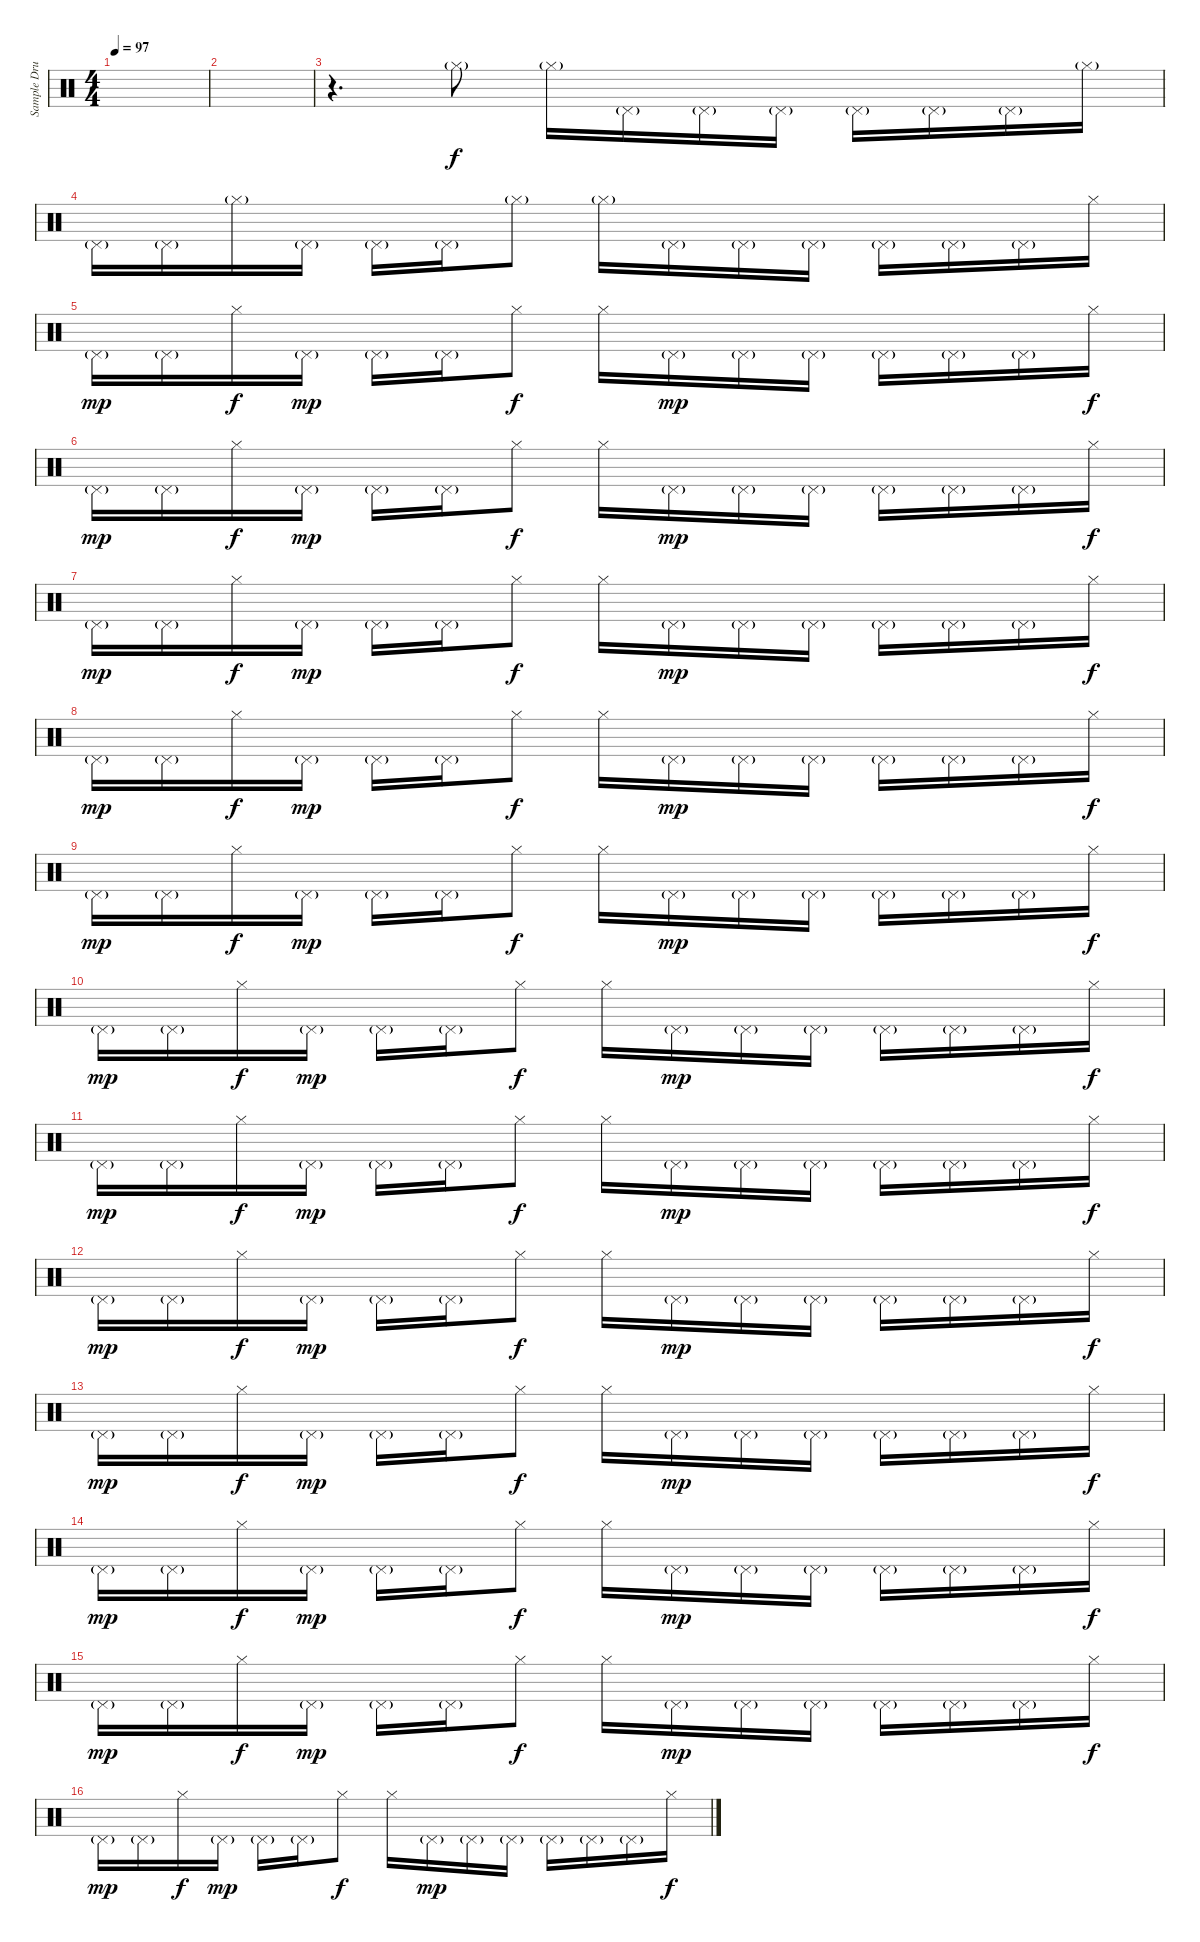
\track ("Sample Drums" "Sample Dru") {instrument percussion}
\staff {score}
\articulation defaults
\ts (4 4)
\tempo 97
\clef neutral
\ks c
|
|
r.4{d} "Hi-Hat (closed)"{g}.8 "Hi-Hat (closed)"{g}.16 "Pedal Hi-Hat (hit)"{g}.16 "Pedal Hi-Hat (hit)"{g}.16 "Pedal Hi-Hat (hit)"{g}.16 "Pedal Hi-Hat (hit)"{g}.16 "Pedal Hi-Hat (hit)"{g}.16 "Pedal Hi-Hat (hit)"{g}.16 "Hi-Hat (closed)"{g}.16 |
"Pedal Hi-Hat (hit)"{g}.16 "Pedal Hi-Hat (hit)"{g}.16 "Hi-Hat (closed)"{g}.16 "Pedal Hi-Hat (hit)"{g}.16 "Pedal Hi-Hat (hit)"{g}.16 "Pedal Hi-Hat (hit)"{g}.16 "Hi-Hat (closed)"{g}.8 "Hi-Hat (closed)"{g}.16 "Pedal Hi-Hat (hit)"{g}.16 "Pedal Hi-Hat (hit)"{g}.16 "Pedal Hi-Hat (hit)"{g}.16 "Pedal Hi-Hat (hit)"{g}.16 "Pedal Hi-Hat (hit)"{g}.16 "Pedal Hi-Hat (hit)"{g}.16 "Hi-Hat (closed)".16{dy f} |
"Pedal Hi-Hat (hit)"{g}.16{dy mp} "Pedal Hi-Hat (hit)"{g}.16 "Hi-Hat (closed)".16{dy f} "Pedal Hi-Hat (hit)"{g}.16{dy mp} "Pedal Hi-Hat (hit)"{g}.16 "Pedal Hi-Hat (hit)"{g}.16 "Hi-Hat (closed)".8{dy f} "Hi-Hat (closed)".16 "Pedal Hi-Hat (hit)"{g}.16{dy mp} "Pedal Hi-Hat (hit)"{g}.16 "Pedal Hi-Hat (hit)"{g}.16 "Pedal Hi-Hat (hit)"{g}.16 "Pedal Hi-Hat (hit)"{g}.16 "Pedal Hi-Hat (hit)"{g}.16 "Hi-Hat (closed)".16{dy f} |
"Pedal Hi-Hat (hit)"{g}.16{dy mp} "Pedal Hi-Hat (hit)"{g}.16 "Hi-Hat (closed)".16{dy f} "Pedal Hi-Hat (hit)"{g}.16{dy mp} "Pedal Hi-Hat (hit)"{g}.16 "Pedal Hi-Hat (hit)"{g}.16 "Hi-Hat (closed)".8{dy f} "Hi-Hat (closed)".16 "Pedal Hi-Hat (hit)"{g}.16{dy mp} "Pedal Hi-Hat (hit)"{g}.16 "Pedal Hi-Hat (hit)"{g}.16 "Pedal Hi-Hat (hit)"{g}.16 "Pedal Hi-Hat (hit)"{g}.16 "Pedal Hi-Hat (hit)"{g}.16 "Hi-Hat (closed)".16{dy f} |
"Pedal Hi-Hat (hit)"{g}.16{dy mp} "Pedal Hi-Hat (hit)"{g}.16 "Hi-Hat (closed)".16{dy f} "Pedal Hi-Hat (hit)"{g}.16{dy mp} "Pedal Hi-Hat (hit)"{g}.16 "Pedal Hi-Hat (hit)"{g}.16 "Hi-Hat (closed)".8{dy f} "Hi-Hat (closed)".16 "Pedal Hi-Hat (hit)"{g}.16{dy mp} "Pedal Hi-Hat (hit)"{g}.16 "Pedal Hi-Hat (hit)"{g}.16 "Pedal Hi-Hat (hit)"{g}.16 "Pedal Hi-Hat (hit)"{g}.16 "Pedal Hi-Hat (hit)"{g}.16 "Hi-Hat (closed)".16{dy f} |
"Pedal Hi-Hat (hit)"{g}.16{dy mp} "Pedal Hi-Hat (hit)"{g}.16 "Hi-Hat (closed)".16{dy f} "Pedal Hi-Hat (hit)"{g}.16{dy mp} "Pedal Hi-Hat (hit)"{g}.16 "Pedal Hi-Hat (hit)"{g}.16 "Hi-Hat (closed)".8{dy f} "Hi-Hat (closed)".16 "Pedal Hi-Hat (hit)"{g}.16{dy mp} "Pedal Hi-Hat (hit)"{g}.16 "Pedal Hi-Hat (hit)"{g}.16 "Pedal Hi-Hat (hit)"{g}.16 "Pedal Hi-Hat (hit)"{g}.16 "Pedal Hi-Hat (hit)"{g}.16 "Hi-Hat (closed)".16{dy f} |
"Pedal Hi-Hat (hit)"{g}.16{dy mp} "Pedal Hi-Hat (hit)"{g}.16 "Hi-Hat (closed)".16{dy f} "Pedal Hi-Hat (hit)"{g}.16{dy mp} "Pedal Hi-Hat (hit)"{g}.16 "Pedal Hi-Hat (hit)"{g}.16 "Hi-Hat (closed)".8{dy f} "Hi-Hat (closed)".16 "Pedal Hi-Hat (hit)"{g}.16{dy mp} "Pedal Hi-Hat (hit)"{g}.16 "Pedal Hi-Hat (hit)"{g}.16 "Pedal Hi-Hat (hit)"{g}.16 "Pedal Hi-Hat (hit)"{g}.16 "Pedal Hi-Hat (hit)"{g}.16 "Hi-Hat (closed)".16{dy f} |
"Pedal Hi-Hat (hit)"{g}.16{dy mp} "Pedal Hi-Hat (hit)"{g}.16 "Hi-Hat (closed)".16{dy f} "Pedal Hi-Hat (hit)"{g}.16{dy mp} "Pedal Hi-Hat (hit)"{g}.16 "Pedal Hi-Hat (hit)"{g}.16 "Hi-Hat (closed)".8{dy f} "Hi-Hat (closed)".16 "Pedal Hi-Hat (hit)"{g}.16{dy mp} "Pedal Hi-Hat (hit)"{g}.16 "Pedal Hi-Hat (hit)"{g}.16 "Pedal Hi-Hat (hit)"{g}.16 "Pedal Hi-Hat (hit)"{g}.16 "Pedal Hi-Hat (hit)"{g}.16 "Hi-Hat (closed)".16{dy f} |
"Pedal Hi-Hat (hit)"{g}.16{dy mp} "Pedal Hi-Hat (hit)"{g}.16 "Hi-Hat (closed)".16{dy f} "Pedal Hi-Hat (hit)"{g}.16{dy mp} "Pedal Hi-Hat (hit)"{g}.16 "Pedal Hi-Hat (hit)"{g}.16 "Hi-Hat (closed)".8{dy f} "Hi-Hat (closed)".16 "Pedal Hi-Hat (hit)"{g}.16{dy mp} "Pedal Hi-Hat (hit)"{g}.16 "Pedal Hi-Hat (hit)"{g}.16 "Pedal Hi-Hat (hit)"{g}.16 "Pedal Hi-Hat (hit)"{g}.16 "Pedal Hi-Hat (hit)"{g}.16 "Hi-Hat (closed)".16{dy f} |
"Pedal Hi-Hat (hit)"{g}.16{dy mp} "Pedal Hi-Hat (hit)"{g}.16 "Hi-Hat (closed)".16{dy f} "Pedal Hi-Hat (hit)"{g}.16{dy mp} "Pedal Hi-Hat (hit)"{g}.16 "Pedal Hi-Hat (hit)"{g}.16 "Hi-Hat (closed)".8{dy f} "Hi-Hat (closed)".16 "Pedal Hi-Hat (hit)"{g}.16{dy mp} "Pedal Hi-Hat (hit)"{g}.16 "Pedal Hi-Hat (hit)"{g}.16 "Pedal Hi-Hat (hit)"{g}.16 "Pedal Hi-Hat (hit)"{g}.16 "Pedal Hi-Hat (hit)"{g}.16 "Hi-Hat (closed)".16{dy f} |
"Pedal Hi-Hat (hit)"{g}.16{dy mp} "Pedal Hi-Hat (hit)"{g}.16 "Hi-Hat (closed)".16{dy f} "Pedal Hi-Hat (hit)"{g}.16{dy mp} "Pedal Hi-Hat (hit)"{g}.16 "Pedal Hi-Hat (hit)"{g}.16 "Hi-Hat (closed)".8{dy f} "Hi-Hat (closed)".16 "Pedal Hi-Hat (hit)"{g}.16{dy mp} "Pedal Hi-Hat (hit)"{g}.16 "Pedal Hi-Hat (hit)"{g}.16 "Pedal Hi-Hat (hit)"{g}.16 "Pedal Hi-Hat (hit)"{g}.16 "Pedal Hi-Hat (hit)"{g}.16 "Hi-Hat (closed)".16{dy f} |
"Pedal Hi-Hat (hit)"{g}.16{dy mp} "Pedal Hi-Hat (hit)"{g}.16 "Hi-Hat (closed)".16{dy f} "Pedal Hi-Hat (hit)"{g}.16{dy mp} "Pedal Hi-Hat (hit)"{g}.16 "Pedal Hi-Hat (hit)"{g}.16 "Hi-Hat (closed)".8{dy f} "Hi-Hat (closed)".16 "Pedal Hi-Hat (hit)"{g}.16{dy mp} "Pedal Hi-Hat (hit)"{g}.16 "Pedal Hi-Hat (hit)"{g}.16 "Pedal Hi-Hat (hit)"{g}.16 "Pedal Hi-Hat (hit)"{g}.16 "Pedal Hi-Hat (hit)"{g}.16 "Hi-Hat (closed)".16{dy f} |
"Pedal Hi-Hat (hit)"{g}.16{dy mp} "Pedal Hi-Hat (hit)"{g}.16 "Hi-Hat (closed)".16{dy f} "Pedal Hi-Hat (hit)"{g}.16{dy mp} "Pedal Hi-Hat (hit)"{g}.16 "Pedal Hi-Hat (hit)"{g}.16 "Hi-Hat (closed)".8{dy f} "Hi-Hat (closed)".16 "Pedal Hi-Hat (hit)"{g}.16{dy mp} "Pedal Hi-Hat (hit)"{g}.16 "Pedal Hi-Hat (hit)"{g}.16 "Pedal Hi-Hat (hit)"{g}.16 "Pedal Hi-Hat (hit)"{g}.16 "Pedal Hi-Hat (hit)"{g}.16 "Hi-Hat (closed)".16{dy f} |
"Pedal Hi-Hat (hit)"{g}.16{dy mp} "Pedal Hi-Hat (hit)"{g}.16 "Hi-Hat (closed)".16{dy f} "Pedal Hi-Hat (hit)"{g}.16{dy mp} "Pedal Hi-Hat (hit)"{g}.16 "Pedal Hi-Hat (hit)"{g}.16 "Hi-Hat (closed)".8{dy f} "Hi-Hat (closed)".16 "Pedal Hi-Hat (hit)"{g}.16{dy mp} "Pedal Hi-Hat (hit)"{g}.16 "Pedal Hi-Hat (hit)"{g}.16 "Pedal Hi-Hat (hit)"{g}.16 "Pedal Hi-Hat (hit)"{g}.16 "Pedal Hi-Hat (hit)"{g}.16 "Hi-Hat (closed)".16{dy f}
